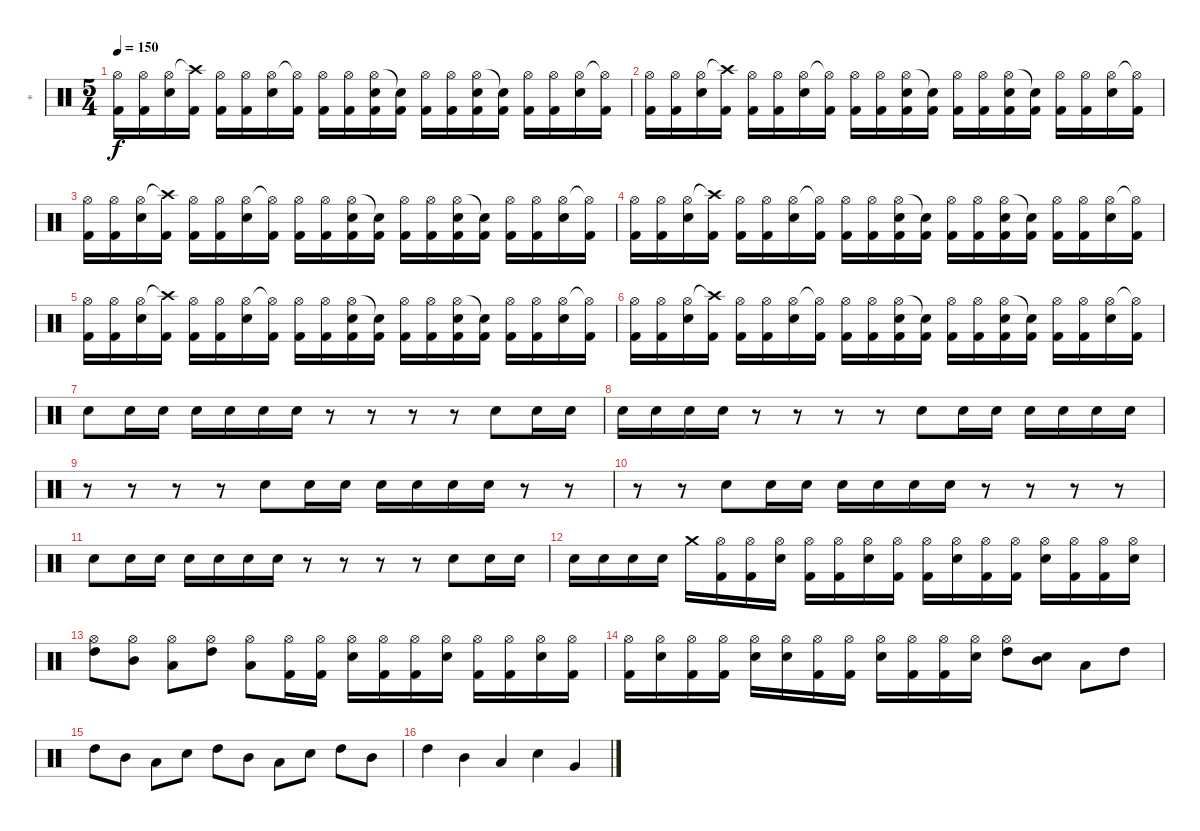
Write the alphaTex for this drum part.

\track ("*" "*") {instrument percussion}
\staff {score}
\articulation defaults
\ts (5 4)
\tempo 150
\clef neutral
\ks c
("Hi-Hat (open)" "Kick (hit) 2").16{dy f} ("Hi-Hat (open)" "Kick (hit) 2").16 ("Hi-Hat (open)" "Electric Snare (hit)").16 ("Crash high (hit)"{t} "Kick (hit) 2").16 ("Hi-Hat (open)" "Kick (hit) 2").16 ("Hi-Hat (open)" "Kick (hit) 2").16 ("Hi-Hat (open)" "Electric Snare (hit)").16 ("Hi-Hat (open)"{t} "Kick (hit) 2").16 ("Hi-Hat (open)" "Kick (hit) 2").16 ("Hi-Hat (open)" "Kick (hit) 2").16 ("Hi-Hat (open)" "Electric Snare (hit)" "Kick (hit) 2"{x}).16 ("Snare (hit)"{t} "Kick (hit) 2").16 ("Hi-Hat (open)" "Kick (hit) 2").16 ("Hi-Hat (open)" "Kick (hit) 2").16 ("Hi-Hat (open)" "Electric Snare (hit)" "Kick (hit) 2"{x}).16 ("Snare (hit)"{t} "Kick (hit) 2").16 ("Hi-Hat (open)" "Kick (hit) 2").16 ("Hi-Hat (open)" "Kick (hit) 2").16 ("Hi-Hat (open)" "Electric Snare (hit)").16 ("Hi-Hat (open)"{t} "Kick (hit) 2").16 |
("Hi-Hat (open)" "Kick (hit) 2").16 ("Hi-Hat (open)" "Kick (hit) 2").16 ("Hi-Hat (open)" "Electric Snare (hit)").16 ("Crash high (hit)"{t} "Kick (hit) 2").16 ("Hi-Hat (open)" "Kick (hit) 2").16 ("Hi-Hat (open)" "Kick (hit) 2").16 ("Hi-Hat (open)" "Electric Snare (hit)").16 ("Hi-Hat (open)"{t} "Kick (hit) 2").16 ("Hi-Hat (open)" "Kick (hit) 2").16 ("Hi-Hat (open)" "Kick (hit) 2").16 ("Hi-Hat (open)" "Electric Snare (hit)" "Kick (hit) 2"{x}).16 ("Snare (hit)"{t} "Kick (hit) 2").16 ("Hi-Hat (open)" "Kick (hit) 2").16 ("Hi-Hat (open)" "Kick (hit) 2").16 ("Hi-Hat (open)" "Electric Snare (hit)" "Kick (hit) 2"{x}).16 ("Snare (hit)"{t} "Kick (hit) 2").16 ("Hi-Hat (open)" "Kick (hit) 2").16 ("Hi-Hat (open)" "Kick (hit) 2").16 ("Hi-Hat (open)" "Electric Snare (hit)").16 ("Hi-Hat (open)"{t} "Kick (hit) 2").16 |
("Hi-Hat (open)" "Kick (hit) 2").16 ("Hi-Hat (open)" "Kick (hit) 2").16 ("Hi-Hat (open)" "Electric Snare (hit)").16 ("Crash high (hit)"{t} "Kick (hit) 2").16 ("Hi-Hat (open)" "Kick (hit) 2").16 ("Hi-Hat (open)" "Kick (hit) 2").16 ("Hi-Hat (open)" "Electric Snare (hit)").16 ("Hi-Hat (open)"{t} "Kick (hit) 2").16 ("Hi-Hat (open)" "Kick (hit) 2").16 ("Hi-Hat (open)" "Kick (hit) 2").16 ("Hi-Hat (open)" "Electric Snare (hit)" "Kick (hit) 2"{x}).16 ("Snare (hit)"{t} "Kick (hit) 2").16 ("Hi-Hat (open)" "Kick (hit) 2").16 ("Hi-Hat (open)" "Kick (hit) 2").16 ("Hi-Hat (open)" "Electric Snare (hit)" "Kick (hit) 2"{x}).16 ("Snare (hit)"{t} "Kick (hit) 2").16 ("Hi-Hat (open)" "Kick (hit) 2").16 ("Hi-Hat (open)" "Kick (hit) 2").16 ("Hi-Hat (open)" "Electric Snare (hit)").16 ("Hi-Hat (open)"{t} "Kick (hit) 2").16 |
("Hi-Hat (open)" "Kick (hit) 2").16 ("Hi-Hat (open)" "Kick (hit) 2").16 ("Hi-Hat (open)" "Electric Snare (hit)").16 ("Crash high (hit)"{t} "Kick (hit) 2").16 ("Hi-Hat (open)" "Kick (hit) 2").16 ("Hi-Hat (open)" "Kick (hit) 2").16 ("Hi-Hat (open)" "Electric Snare (hit)").16 ("Hi-Hat (open)"{t} "Kick (hit) 2").16 ("Hi-Hat (open)" "Kick (hit) 2").16 ("Hi-Hat (open)" "Kick (hit) 2").16 ("Hi-Hat (open)" "Electric Snare (hit)" "Kick (hit) 2"{x}).16 ("Snare (hit)"{t} "Kick (hit) 2").16 ("Hi-Hat (open)" "Kick (hit) 2").16 ("Hi-Hat (open)" "Kick (hit) 2").16 ("Hi-Hat (open)" "Electric Snare (hit)" "Kick (hit) 2"{x}).16 ("Snare (hit)"{t} "Kick (hit) 2").16 ("Hi-Hat (open)" "Kick (hit) 2").16 ("Hi-Hat (open)" "Kick (hit) 2").16 ("Hi-Hat (open)" "Electric Snare (hit)").16 ("Hi-Hat (open)"{t} "Kick (hit) 2").16 |
("Hi-Hat (open)" "Kick (hit) 2").16 ("Hi-Hat (open)" "Kick (hit) 2").16 ("Hi-Hat (open)" "Electric Snare (hit)").16 ("Crash high (hit)"{t} "Kick (hit) 2").16 ("Hi-Hat (open)" "Kick (hit) 2").16 ("Hi-Hat (open)" "Kick (hit) 2").16 ("Hi-Hat (open)" "Electric Snare (hit)").16 ("Hi-Hat (open)"{t} "Kick (hit) 2").16 ("Hi-Hat (open)" "Kick (hit) 2").16 ("Hi-Hat (open)" "Kick (hit) 2").16 ("Hi-Hat (open)" "Electric Snare (hit)" "Kick (hit) 2"{x}).16 ("Snare (hit)"{t} "Kick (hit) 2").16 ("Hi-Hat (open)" "Kick (hit) 2").16 ("Hi-Hat (open)" "Kick (hit) 2").16 ("Hi-Hat (open)" "Electric Snare (hit)" "Kick (hit) 2"{x}).16 ("Snare (hit)"{t} "Kick (hit) 2").16 ("Hi-Hat (open)" "Kick (hit) 2").16 ("Hi-Hat (open)" "Kick (hit) 2").16 ("Hi-Hat (open)" "Electric Snare (hit)").16 ("Hi-Hat (open)"{t} "Kick (hit) 2").16 |
("Hi-Hat (open)" "Kick (hit) 2").16 ("Hi-Hat (open)" "Kick (hit) 2").16 ("Hi-Hat (open)" "Electric Snare (hit)").16 ("Crash high (hit)"{t} "Kick (hit) 2").16 ("Hi-Hat (open)" "Kick (hit) 2").16 ("Hi-Hat (open)" "Kick (hit) 2").16 ("Hi-Hat (open)" "Electric Snare (hit)").16 ("Hi-Hat (open)"{t} "Kick (hit) 2").16 ("Hi-Hat (open)" "Kick (hit) 2").16 ("Hi-Hat (open)" "Kick (hit) 2").16 ("Hi-Hat (open)" "Electric Snare (hit)" "Kick (hit) 2"{x}).16 ("Snare (hit)"{t} "Kick (hit) 2").16 ("Hi-Hat (open)" "Kick (hit) 2").16 ("Hi-Hat (open)" "Kick (hit) 2").16 ("Hi-Hat (open)" "Electric Snare (hit)" "Kick (hit) 2"{x}).16 ("Snare (hit)"{t} "Kick (hit) 2").16 ("Hi-Hat (open)" "Kick (hit) 2").16 ("Hi-Hat (open)" "Kick (hit) 2").16 ("Hi-Hat (open)" "Electric Snare (hit)").16 ("Hi-Hat (open)"{t} "Kick (hit) 2").16 |
"Electric Snare (hit)".8 "Electric Snare (hit)".16 "Electric Snare (hit)".16 "Electric Snare (hit)".16 "Electric Snare (hit)".16 "Electric Snare (hit)".16 "Electric Snare (hit)".16 r.8 r.8 r.8 r.8 "Snare (hit) 2".8 "Snare (hit) 2".16 "Snare (hit) 2".16 |
"Snare (hit) 2".16 "Snare (hit) 2".16 "Snare (hit) 2".16 "Snare (hit) 2".16 r.8 r.8 r.8 r.8 "Electric Snare (hit)".8 "Electric Snare (hit)".16 "Electric Snare (hit)".16 "Electric Snare (hit)".16 "Electric Snare (hit)".16 "Electric Snare (hit)".16 "Electric Snare (hit)".16 |
r.8 r.8 r.8 r.8 "Snare (hit) 2".8 "Snare (hit) 2".16 "Snare (hit) 2".16 "Snare (hit) 2".16 "Snare (hit) 2".16 "Snare (hit) 2".16 "Snare (hit) 2".16 r.8 r.8 |
r.8 r.8 "Electric Snare (hit)".8 "Electric Snare (hit)".16 "Electric Snare (hit)".16 "Electric Snare (hit)".16 "Electric Snare (hit)".16 "Electric Snare (hit)".16 "Electric Snare (hit)".16 r.8 r.8 r.8 r.8 |
"Snare (hit) 2".8 "Snare (hit) 2".16 "Snare (hit) 2".16 "Snare (hit) 2".16 "Snare (hit) 2".16 "Snare (hit) 2".16 "Snare (hit) 2".16 r.8 r.8 r.8 r.8 "Electric Snare (hit)".8 "Electric Snare (hit)".16 "Electric Snare (hit)".16 |
"Electric Snare (hit)".16 "Electric Snare (hit)".16 "Electric Snare (hit)".16 "Snare (hit) 2".16 "Crash medium (hit)".16 ("Hi-Hat (open)" "Kick (hit) 2").16 ("Hi-Hat (open)" "Kick (hit) 2").16 ("Hi-Hat (open)" "Electric Snare (hit)").16 ("Hi-Hat (open)" "Kick (hit) 2").16 ("Hi-Hat (open)" "Kick (hit) 2").16 ("Hi-Hat (open)" "Electric Snare (hit)").16 ("Hi-Hat (open)" "Kick (hit) 2").16 ("Hi-Hat (open)" "Kick (hit) 2").16 ("Hi-Hat (open)" "Electric Snare (hit)").16 ("Hi-Hat (open)" "Kick (hit) 2").16 ("Hi-Hat (open)" "Kick (hit) 2").16 ("Hi-Hat (open)" "Electric Snare (hit)").16 ("Hi-Hat (open)" "Kick (hit) 2").16 ("Hi-Hat (open)" "Kick (hit) 2").16 ("Hi-Hat (open)" "Electric Snare (hit)").16 |
("Hi-Hat (open)" "High Tom (hit)").8 ("Hi-Hat (open)" "Mid Tom (hit)").8 ("Hi-Hat (open)" "Low Tom (hit)").8 ("Hi-Hat (open)" "High Tom (hit)").8 ("Hi-Hat (open)" "Low Tom (hit)").8 ("Hi-Hat (open)" "Kick (hit) 2").16 ("Hi-Hat (open)" "Kick (hit) 2").16 ("Hi-Hat (open)" "Electric Snare (hit)").16 ("Hi-Hat (open)" "Kick (hit) 2").16 ("Hi-Hat (open)" "Kick (hit) 2").16 ("Hi-Hat (open)" "Electric Snare (hit)").16 ("Hi-Hat (open)" "Kick (hit) 2").16 ("Hi-Hat (open)" "Kick (hit) 2").16 ("Hi-Hat (open)" "Electric Snare (hit)").16 ("Hi-Hat (open)" "Kick (hit) 2").16 |
("Hi-Hat (open)" "Kick (hit) 2").16 ("Hi-Hat (open)" "Electric Snare (hit)").16 ("Hi-Hat (open)" "Kick (hit) 2").16 ("Hi-Hat (open)" "Kick (hit) 2").16 ("Hi-Hat (open)" "Electric Snare (hit)").16 ("Hi-Hat (open)" "Electric Snare (hit)").16 ("Hi-Hat (open)" "Kick (hit) 2").16 ("Hi-Hat (open)" "Kick (hit) 2").16 ("Hi-Hat (open)" "Electric Snare (hit)").16 ("Hi-Hat (open)" "Kick (hit) 2").16 ("Hi-Hat (open)" "Kick (hit) 2").16 ("Hi-Hat (open)" "Electric Snare (hit)").16 ("Hi-Hat (open)" "High Tom (hit)").8 ("Snare (hit)" "Mid Tom (hit)").8 "Low Tom (hit)".8 "High Tom (hit)".8 |
"High Tom (hit)".8 "Mid Tom (hit)".8 "Low Tom (hit)".8 "Electric Snare (hit)".8 "High Tom (hit)".8 "Mid Tom (hit)".8 "Low Tom (hit)".8 "Electric Snare (hit)".8 "High Tom (hit)".8 "Mid Tom (hit)".8 |
"High Tom (hit)".4 "Mid Tom (hit)".4 "Low Tom (hit)".4 "Electric Snare (hit)".4 "Very Low Tom (hit)".4
